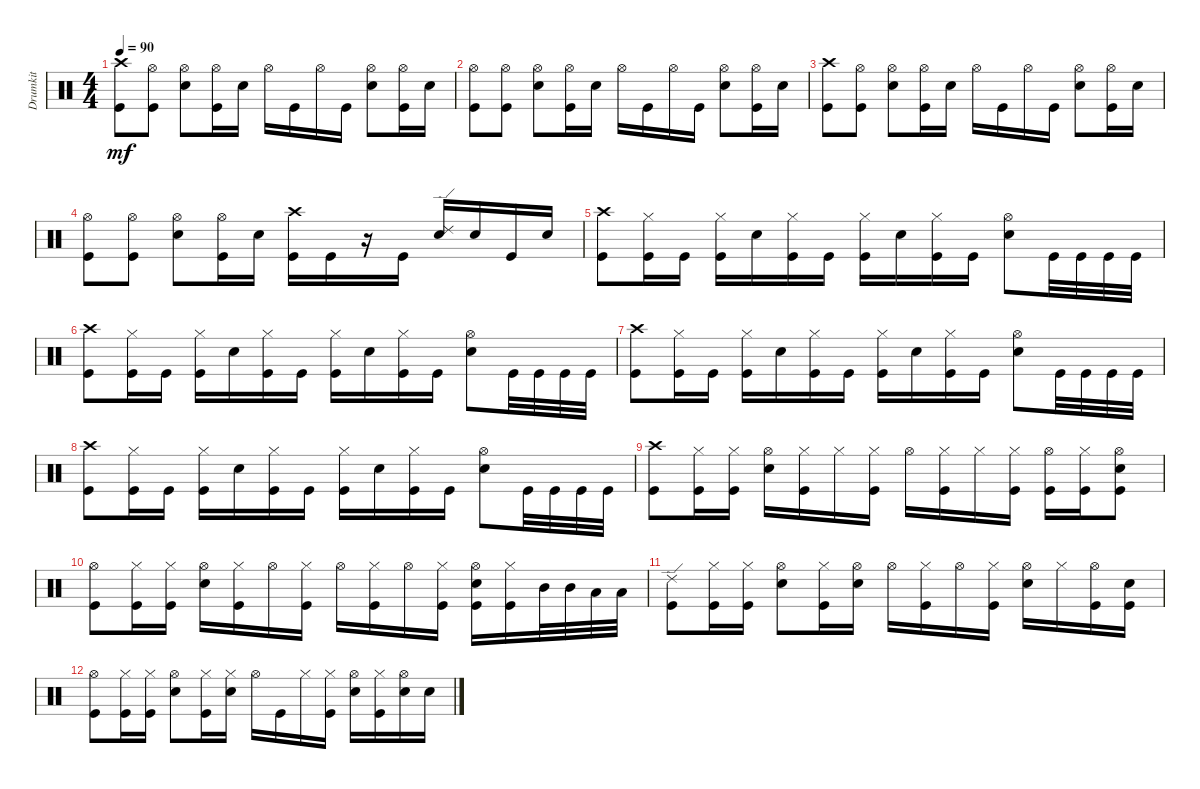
\track ("Drumkit" "Drumkit") {instrument percussion}
\staff {score}
\articulation defaults
\ts (4 4)
\tempo 90
\clef neutral
\ks c
("Kick (hit)" "Crash high (hit)").8{dy mf} ("Kick (hit)" "Hi-Hat (open)").8 ("Snare (hit) 2" "Hi-Hat (open)").8 ("Kick (hit)" "Hi-Hat (open)").16 "Snare (hit) 2".16 "Hi-Hat (open)".16 "Kick (hit)".16 "Hi-Hat (open)".16 "Kick (hit)".16 ("Snare (hit) 2" "Hi-Hat (open)").8 ("Kick (hit)" "Hi-Hat (open)").16 "Snare (hit) 2".16 |
("Kick (hit)" "Hi-Hat (open)").8 ("Kick (hit)" "Hi-Hat (open)").8 ("Snare (hit) 2" "Hi-Hat (open)").8 ("Kick (hit)" "Hi-Hat (open)").16 "Snare (hit) 2".16 "Hi-Hat (open)".16 "Kick (hit)".16 "Hi-Hat (open)".16 "Kick (hit)".16 ("Snare (hit) 2" "Hi-Hat (open)").8 ("Kick (hit)" "Hi-Hat (open)").16 "Snare (hit) 2".16 |
("Kick (hit)" "Crash high (hit)").8 ("Kick (hit)" "Hi-Hat (open)").8 ("Snare (hit) 2" "Hi-Hat (open)").8 ("Kick (hit)" "Hi-Hat (open)").16 "Snare (hit) 2".16 "Hi-Hat (open)".16 "Kick (hit)".16 "Hi-Hat (open)".16 "Kick (hit)".16 ("Snare (hit) 2" "Hi-Hat (open)").8 ("Kick (hit)" "Hi-Hat (open)").16 "Snare (hit) 2".16 |
("Kick (hit)" "Hi-Hat (open)").8 ("Kick (hit)" "Hi-Hat (open)").8 ("Snare (hit) 2" "Hi-Hat (open)").8 ("Kick (hit)" "Hi-Hat (open)").16 "Snare (hit) 2".16 ("Kick (hit)" "Crash high (hit)").16 "Kick (hit)".16 r.16 "Kick (hit)".16 ("Snare (hit) 2" "Ride (edge) 2").16 "Snare (hit) 2".16 "Kick (hit)".16 "Snare (hit) 2".16 |
("Kick (hit)" "Crash high (hit)").8 ("Kick (hit)" "Hi-Hat (closed)").16 "Kick (hit)".16 ("Kick (hit)" "Hi-Hat (closed)").16 "Snare (hit) 2".16 ("Kick (hit)" "Hi-Hat (closed)").16 "Kick (hit)".16 ("Kick (hit)" "Hi-Hat (closed)").16 "Snare (hit) 2".16 ("Kick (hit)" "Hi-Hat (closed)").16 "Kick (hit)".16 ("Snare (hit) 2" "Hi-Hat (open)").8 "Kick (hit)".32 "Kick (hit)".32 "Kick (hit)".32 "Kick (hit)".32 |
("Kick (hit)" "Crash high (hit)").8 ("Kick (hit)" "Hi-Hat (closed)").16 "Kick (hit)".16 ("Kick (hit)" "Hi-Hat (closed)").16 "Snare (hit) 2".16 ("Kick (hit)" "Hi-Hat (closed)").16 "Kick (hit)".16 ("Kick (hit)" "Hi-Hat (closed)").16 "Snare (hit) 2".16 ("Kick (hit)" "Hi-Hat (closed)").16 "Kick (hit)".16 ("Snare (hit) 2" "Hi-Hat (open)").8 "Kick (hit)".32 "Kick (hit)".32 "Kick (hit)".32 "Kick (hit)".32 |
("Kick (hit)" "Crash high (hit)").8 ("Kick (hit)" "Hi-Hat (closed)").16 "Kick (hit)".16 ("Kick (hit)" "Hi-Hat (closed)").16 "Snare (hit) 2".16 ("Kick (hit)" "Hi-Hat (closed)").16 "Kick (hit)".16 ("Kick (hit)" "Hi-Hat (closed)").16 "Snare (hit) 2".16 ("Kick (hit)" "Hi-Hat (closed)").16 "Kick (hit)".16 ("Snare (hit) 2" "Hi-Hat (open)").8 "Kick (hit)".32 "Kick (hit)".32 "Kick (hit)".32 "Kick (hit)".32 |
("Kick (hit)" "Crash high (hit)").8 ("Kick (hit)" "Hi-Hat (closed)").16 "Kick (hit)".16 ("Kick (hit)" "Hi-Hat (closed)").16 "Snare (hit) 2".16 ("Kick (hit)" "Hi-Hat (closed)").16 "Kick (hit)".16 ("Kick (hit)" "Hi-Hat (closed)").16 "Snare (hit) 2".16 ("Kick (hit)" "Hi-Hat (closed)").16 "Kick (hit)".16 ("Snare (hit) 2" "Hi-Hat (open)").8 "Kick (hit)".32 "Kick (hit)".32 "Kick (hit)".32 "Kick (hit)".32 |
("Kick (hit)" "Crash high (hit)").8 ("Kick (hit)" "Hi-Hat (closed)").16 ("Kick (hit)" "Hi-Hat (closed)").16 ("Snare (hit) 2" "Hi-Hat (open)").16 ("Kick (hit)" "Hi-Hat (closed)").16 "Hi-Hat (closed)".16 ("Kick (hit)" "Hi-Hat (closed)").16 "Hi-Hat (open)".16 ("Kick (hit)" "Hi-Hat (closed)").16 "Hi-Hat (closed)".16 ("Kick (hit)" "Hi-Hat (closed)").16 ("Kick (hit)" "Hi-Hat (open)").16 ("Kick (hit)" "Hi-Hat (closed)").16 ("Kick (hit)" "Snare (hit) 2" "Hi-Hat (open)").8 |
("Kick (hit)" "Hi-Hat (open)").8 ("Kick (hit)" "Hi-Hat (closed)").16 ("Kick (hit)" "Hi-Hat (closed)").16 ("Snare (hit) 2" "Hi-Hat (open)").16 ("Kick (hit)" "Hi-Hat (closed)").16 "Hi-Hat (open)".16 ("Kick (hit)" "Hi-Hat (closed)").16 "Hi-Hat (open)".16 ("Kick (hit)" "Hi-Hat (closed)").16 "Hi-Hat (open)".16 ("Kick (hit)" "Hi-Hat (closed)").16 ("Kick (hit)" "Snare (hit) 2" "Hi-Hat (open)").16 ("Kick (hit)" "Hi-Hat (closed)").16 "Mid Tom (hit)".32 "Mid Tom (hit)".32 "Low Tom (hit)".32 "Low Tom (hit)".32 |
("Kick (hit)" "Ride (edge) 2").8 ("Kick (hit)" "Hi-Hat (closed)").16 ("Kick (hit)" "Hi-Hat (closed)").16 ("Snare (hit) 2" "Hi-Hat (open)").8 ("Kick (hit)" "Hi-Hat (closed)").16 ("Snare (hit) 2" "Hi-Hat (open)").16 "Hi-Hat (open)".16 ("Kick (hit)" "Hi-Hat (closed)").16 "Hi-Hat (open)".16 ("Kick (hit)" "Hi-Hat (closed)").16 ("Snare (hit) 2" "Hi-Hat (open)").16 "Hi-Hat (closed)".16 ("Kick (hit)" "Hi-Hat (open)").16 ("Kick (hit)" "Snare (hit) 2").16 |
("Kick (hit)" "Hi-Hat (open)").8 ("Kick (hit)" "Hi-Hat (closed)").16 ("Kick (hit)" "Hi-Hat (closed)").16 ("Snare (hit) 2" "Hi-Hat (open)").8 ("Kick (hit)" "Hi-Hat (closed)").16 ("Snare (hit) 2" "Hi-Hat (closed)").16 "Hi-Hat (open)".16 "Kick (hit)".16 "Hi-Hat (closed)".16 ("Kick (hit)" "Hi-Hat (closed)").16 ("Snare (hit) 2" "Hi-Hat (open)").16 ("Kick (hit)" "Hi-Hat (closed)").16 ("Snare (hit) 2" "Hi-Hat (open)").16 "Snare (hit) 2".16
